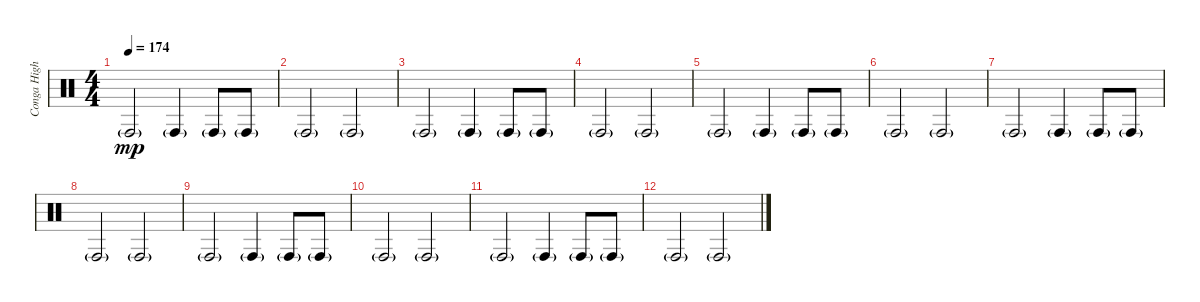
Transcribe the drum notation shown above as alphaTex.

\track ("Conga High" "Conga High") {instrument percussion}
\staff {score}
\articulation defaults
\ts (4 4)
\tempo 174
\clef neutral
\ks c "Conga high (hit)"{g}.2{dy mp} "Conga high (hit)"{g}.4 "Conga high (hit)"{g}.8 "Conga high (hit)"{g}.8
|
"Conga high (hit)"{g}.2 "Conga high (hit)"{g}.2 |
"Conga high (hit)"{g}.2 "Conga high (hit)"{g}.4 "Conga high (hit)"{g}.8 "Conga high (hit)"{g}.8 |
"Conga high (hit)"{g}.2 "Conga high (hit)"{g}.2 |
"Conga high (hit)"{g}.2 "Conga high (hit)"{g}.4 "Conga high (hit)"{g}.8 "Conga high (hit)"{g}.8 |
"Conga high (hit)"{g}.2 "Conga high (hit)"{g}.2 |
"Conga high (hit)"{g}.2 "Conga high (hit)"{g}.4 "Conga high (hit)"{g}.8 "Conga high (hit)"{g}.8 |
"Conga high (hit)"{g}.2 "Conga high (hit)"{g}.2 |
"Conga high (hit)"{g}.2 "Conga high (hit)"{g}.4 "Conga high (hit)"{g}.8 "Conga high (hit)"{g}.8 |
"Conga high (hit)"{g}.2 "Conga high (hit)"{g}.2 |
"Conga high (hit)"{g}.2 "Conga high (hit)"{g}.4 "Conga high (hit)"{g}.8 "Conga high (hit)"{g}.8 |
"Conga high (hit)"{g}.2 "Conga high (hit)"{g}.2
